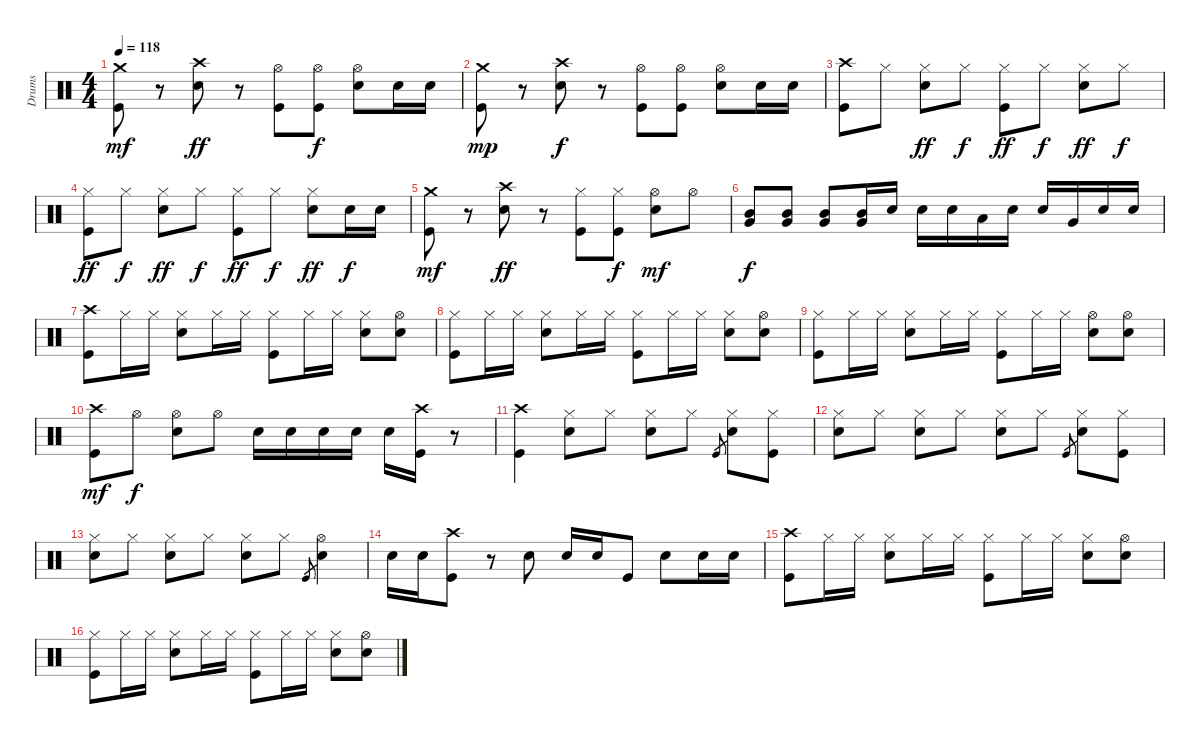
\track ("Drums" "Drums") {instrument percussion}
\staff {score}
\articulation defaults
\ts (4 4)
\tempo 118
\clef neutral
\ks c
("Crash medium (hit)" "Kick (hit)").8{dy mf} r.8 ("Crash high (hit)" "Snare (hit) 2").8{dy ff} r.8 ("Hi-Hat (open)" "Kick (hit)").8 ("Hi-Hat (open)" "Kick (hit)").8{dy f} ("Hi-Hat (open)" "Snare (hit) 2").8 "Snare (hit) 2".16 "Snare (hit) 2".16 |
("Crash medium (hit)" "Kick (hit)").8{dy mp} r.8 ("Crash high (hit)" "Snare (hit) 2").8{dy f} r.8 ("Hi-Hat (open)" "Kick (hit)").8 ("Hi-Hat (open)" "Kick (hit)").8 ("Hi-Hat (open)" "Snare (hit) 2").8 "Snare (hit) 2".16 "Snare (hit) 2".16 |
("Crash high (hit)" "Kick (hit)").8 "Hi-Hat (closed)".8 ("Hi-Hat (closed)" "Snare (hit) 2").8{dy ff} "Hi-Hat (closed)".8{dy f} ("Hi-Hat (closed)" "Kick (hit)").8{dy ff} "Hi-Hat (closed)".8{dy f} ("Hi-Hat (closed)" "Snare (hit) 2").8{dy ff} "Hi-Hat (closed)".8{dy f} |
("Hi-Hat (closed)" "Kick (hit)").8{dy ff} "Hi-Hat (closed)".8{dy f} ("Hi-Hat (closed)" "Snare (hit) 2").8{dy ff} "Hi-Hat (closed)".8{dy f} ("Hi-Hat (closed)" "Kick (hit)").8{dy ff} "Hi-Hat (closed)".8{dy f} ("Hi-Hat (closed)" "Snare (hit) 2").8{dy ff} "Snare (hit) 2".16{dy f} "Snare (hit) 2".16 |
("Crash medium (hit)" "Kick (hit)").8{dy mf} r.8 ("Crash high (hit)" "Snare (hit) 2").8{dy ff} r.8 ("Hi-Hat (closed)" "Kick (hit)").8 ("Hi-Hat (closed)" "Kick (hit)").8{dy f} ("Hi-Hat (open)" "Snare (hit) 2").8{dy mf} "Hi-Hat (open)".8 |
("Mid Tom (hit)" "Very Low Tom (hit)").8{dy f} ("Mid Tom (hit)" "Very Low Tom (hit)").8 ("Mid Tom (hit)" "Very Low Tom (hit)").8 ("Mid Tom (hit)" "Very Low Tom (hit)").16 "Snare (hit) 2".16 "Snare (hit) 2".16 "Snare (hit) 2".16 "Low Tom (hit)".16 "Snare (hit) 2".16 "Snare (hit) 2".16 "Very Low Tom (hit)".16 "Snare (hit) 2".16 "Snare (hit) 2".16 |
("Crash high (hit)" "Kick (hit)").8 "Hi-Hat (closed)".16 "Hi-Hat (closed)".16 ("Hi-Hat (closed)" "Snare (hit) 2").8 "Hi-Hat (closed)".16 "Hi-Hat (closed)".16 ("Hi-Hat (closed)" "Kick (hit)").8 "Hi-Hat (closed)".16 "Hi-Hat (closed)".16 ("Hi-Hat (closed)" "Snare (hit) 2").8 ("Hi-Hat (open)" "Snare (hit) 2").8 |
("Hi-Hat (closed)" "Kick (hit)").8 "Hi-Hat (closed)".16 "Hi-Hat (closed)".16 ("Hi-Hat (closed)" "Snare (hit) 2").8 "Hi-Hat (closed)".16 "Hi-Hat (closed)".16 ("Hi-Hat (closed)" "Kick (hit)").8 "Hi-Hat (closed)".16 "Hi-Hat (closed)".16 ("Hi-Hat (closed)" "Snare (hit) 2").8 ("Hi-Hat (open)" "Snare (hit) 2").8 |
("Hi-Hat (closed)" "Kick (hit)").8 "Hi-Hat (closed)".16 "Hi-Hat (closed)".16 ("Hi-Hat (closed)" "Snare (hit) 2").8 "Hi-Hat (closed)".16 "Hi-Hat (closed)".16 ("Hi-Hat (closed)" "Kick (hit)").8 "Hi-Hat (closed)".16 "Hi-Hat (closed)".16 ("Hi-Hat (open)" "Snare (hit) 2").8 ("Hi-Hat (open)" "Snare (hit) 2").8 |
("Crash high (hit)" "Kick (hit)").8{dy mf} "Hi-Hat (open)".8{dy f} ("Hi-Hat (open)" "Snare (hit) 2").8 "Hi-Hat (open)".8 "Snare (hit) 2".16 "Snare (hit) 2".16 "Snare (hit) 2".16 "Snare (hit) 2".16 "Snare (hit) 2".16 ("Crash high (hit)" "Kick (hit)").16 r.8 |
("Crash high (hit)" "Kick (hit)").4 ("Hi-Hat (closed)" "Snare (hit) 2").8 "Hi-Hat (closed)".8 ("Hi-Hat (closed)" "Snare (hit) 2").8 "Hi-Hat (closed)".8 "Kick (hit)".8{gr} ("Hi-Hat (closed)" "Snare (hit) 2").8 ("Hi-Hat (closed)" "Kick (hit)").8 |
("Hi-Hat (closed)" "Snare (hit) 2").8 "Hi-Hat (closed)".8 ("Hi-Hat (closed)" "Snare (hit) 2").8 "Hi-Hat (closed)".8 ("Hi-Hat (closed)" "Snare (hit) 2").8 "Hi-Hat (closed)".8 "Kick (hit)".8{gr} ("Hi-Hat (closed)" "Snare (hit) 2").8 ("Hi-Hat (closed)" "Kick (hit)").8 |
("Hi-Hat (closed)" "Snare (hit) 2").8 "Hi-Hat (closed)".8 ("Hi-Hat (closed)" "Snare (hit) 2").8 "Hi-Hat (closed)".8 ("Hi-Hat (closed)" "Snare (hit) 2").8 "Hi-Hat (closed)".8 "Kick (hit)".8{gr} ("Hi-Hat (open)" "Snare (hit) 2").4 |
"Snare (hit) 2".16 "Snare (hit) 2".16 ("Crash high (hit)" "Kick (hit)").8 r.8 "Snare (hit) 2".8 "Snare (hit) 2".16 "Snare (hit) 2".16 "Kick (hit)".8 "Snare (hit) 2".8 "Snare (hit) 2".16 "Snare (hit) 2".16 |
("Crash high (hit)" "Kick (hit)").8 "Hi-Hat (closed)".16 "Hi-Hat (closed)".16 ("Hi-Hat (closed)" "Snare (hit) 2").8 "Hi-Hat (closed)".16 "Hi-Hat (closed)".16 ("Hi-Hat (closed)" "Kick (hit)").8 "Hi-Hat (closed)".16 "Hi-Hat (closed)".16 ("Hi-Hat (closed)" "Snare (hit) 2").8 ("Hi-Hat (open)" "Snare (hit) 2").8 |
("Hi-Hat (closed)" "Kick (hit)").8 "Hi-Hat (closed)".16 "Hi-Hat (closed)".16 ("Hi-Hat (closed)" "Snare (hit) 2").8 "Hi-Hat (closed)".16 "Hi-Hat (closed)".16 ("Hi-Hat (closed)" "Kick (hit)").8 "Hi-Hat (closed)".16 "Hi-Hat (closed)".16 ("Hi-Hat (closed)" "Snare (hit) 2").8 ("Hi-Hat (open)" "Snare (hit) 2").8
